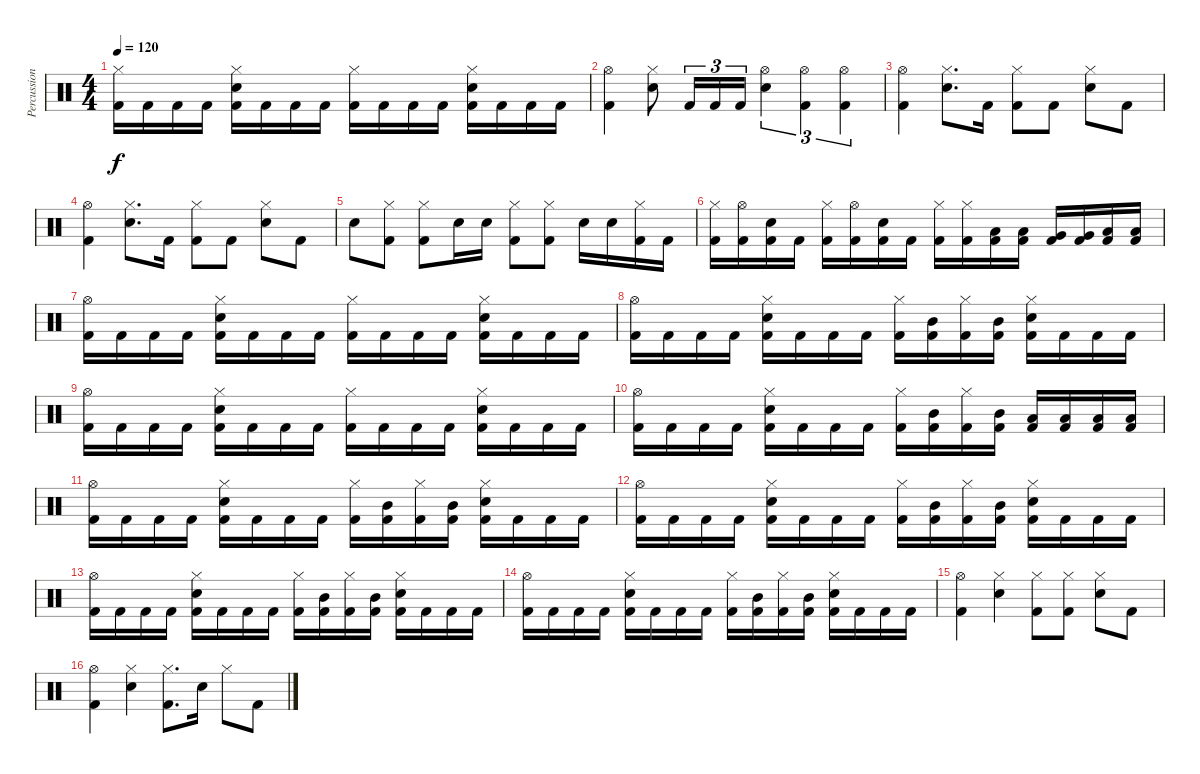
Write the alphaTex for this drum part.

\track ("Percussions" "Percussion") {instrument percussion}
\staff {score}
\articulation defaults
\ts (4 4)
\tempo 120
\clef neutral
\ks c
("Hi-Hat (closed)" "Kick (hit) 2").16{dy f} "Kick (hit) 2".16 "Kick (hit) 2".16 "Kick (hit) 2".16 ("Hi-Hat (closed)" "Snare (hit) 2" "Kick (hit) 2").16 "Kick (hit) 2".16 "Kick (hit) 2".16 "Kick (hit) 2".16 ("Hi-Hat (closed)" "Kick (hit) 2").16 "Kick (hit) 2".16 "Kick (hit) 2".16 "Kick (hit) 2".16 ("Hi-Hat (closed)" "Snare (hit) 2" "Kick (hit) 2").16 "Kick (hit) 2".16 "Kick (hit) 2".16 "Kick (hit) 2".16 |
("Hi-Hat (open)" "Kick (hit) 2").4 ("Hi-Hat (closed)" "Snare (hit) 2").8 "Kick (hit) 2".16{tu (3 2)} "Kick (hit) 2".16{tu (3 2)} "Kick (hit) 2".16{tu (3 2)} ("Hi-Hat (open)" "Snare (hit) 2").4{tu (3 2)} ("Hi-Hat (open)" "Kick (hit) 2").4{tu (3 2)} ("Hi-Hat (open)" "Kick (hit) 2").4{tu (3 2)} |
("Hi-Hat (open)" "Kick (hit) 2").4 ("Hi-Hat (closed)" "Snare (hit) 2").8{d} "Kick (hit) 2".16 ("Hi-Hat (closed)" "Kick (hit) 2").8 "Kick (hit) 2".8 ("Hi-Hat (closed)" "Snare (hit) 2").8 "Kick (hit) 2".8 |
("Hi-Hat (open)" "Kick (hit) 2").4 ("Hi-Hat (closed)" "Snare (hit) 2").8{d} "Kick (hit) 2".16 ("Hi-Hat (closed)" "Kick (hit) 2").8 "Kick (hit) 2".8 ("Hi-Hat (closed)" "Snare (hit) 2").8 "Kick (hit) 2".8 |
"Snare (hit) 2".8 ("Hi-Hat (closed)" "Kick (hit) 2").8 ("Hi-Hat (closed)" "Kick (hit) 2").8 "Snare (hit) 2".16 "Snare (hit) 2".16 ("Hi-Hat (closed)" "Kick (hit) 2").8 ("Hi-Hat (closed)" "Kick (hit) 2").8 "Snare (hit) 2".16 "Snare (hit) 2".16 ("Hi-Hat (closed)" "Kick (hit) 2").16 "Kick (hit) 2".16 |
("Hi-Hat (closed)" "Kick (hit) 2").16 ("Hi-Hat (open)" "Kick (hit) 2").16 ("Snare (hit) 2" "Kick (hit) 2").16 "Kick (hit) 2".16 ("Hi-Hat (closed)" "Kick (hit) 2").16 ("Hi-Hat (open)" "Kick (hit) 2").16 ("Snare (hit) 2" "Kick (hit) 2").16 "Kick (hit) 2".16 ("Hi-Hat (closed)" "Kick (hit) 2").16 ("Hi-Hat (closed)" "Kick (hit) 2").16 ("Low Tom (hit)" "Kick (hit) 2").16 ("Low Tom (hit)" "Kick (hit) 2").16 ("Very Low Tom (hit)" "Kick (hit) 2").16 ("Very Low Tom (hit)" "Kick (hit) 2").16 ("Low Floor Tom (hit)" "Kick (hit) 2").16 ("Low Floor Tom (hit)" "Kick (hit) 2").16 |
("Hi-Hat (open)" "Kick (hit) 2").16 "Kick (hit) 2".16 "Kick (hit) 2".16 "Kick (hit) 2".16 ("Hi-Hat (closed)" "Snare (hit) 2" "Kick (hit) 2").16 "Kick (hit) 2".16 "Kick (hit) 2".16 "Kick (hit) 2".16 ("Hi-Hat (closed)" "Kick (hit) 2").16 "Kick (hit) 2".16 "Kick (hit) 2".16 "Kick (hit) 2".16 ("Hi-Hat (closed)" "Snare (hit) 2" "Kick (hit) 2").16 "Kick (hit) 2".16 "Kick (hit) 2".16 "Kick (hit) 2".16 |
("Hi-Hat (open)" "Kick (hit) 2").16 "Kick (hit) 2".16 "Kick (hit) 2".16 "Kick (hit) 2".16 ("Hi-Hat (closed)" "Snare (hit) 2" "Kick (hit) 2").16 "Kick (hit) 2".16 "Kick (hit) 2".16 "Kick (hit) 2".16 ("Hi-Hat (closed)" "Kick (hit) 2").16 ("Mid Tom (hit)" "Kick (hit) 2").16 ("Hi-Hat (closed)" "Kick (hit) 2").16 ("Mid Tom (hit)" "Kick (hit) 2").16 ("Hi-Hat (closed)" "Snare (hit) 2" "Kick (hit) 2").16 "Kick (hit) 2".16 "Kick (hit) 2".16 "Kick (hit) 2".16 |
("Hi-Hat (open)" "Kick (hit) 2").16 "Kick (hit) 2".16 "Kick (hit) 2".16 "Kick (hit) 2".16 ("Hi-Hat (closed)" "Snare (hit) 2" "Kick (hit) 2").16 "Kick (hit) 2".16 "Kick (hit) 2".16 "Kick (hit) 2".16 ("Hi-Hat (closed)" "Kick (hit) 2").16 "Kick (hit) 2".16 "Kick (hit) 2".16 "Kick (hit) 2".16 ("Hi-Hat (closed)" "Snare (hit) 2" "Kick (hit) 2").16 "Kick (hit) 2".16 "Kick (hit) 2".16 "Kick (hit) 2".16 |
("Hi-Hat (open)" "Kick (hit) 2").16 "Kick (hit) 2".16 "Kick (hit) 2".16 "Kick (hit) 2".16 ("Hi-Hat (closed)" "Snare (hit) 2" "Kick (hit) 2").16 "Kick (hit) 2".16 "Kick (hit) 2".16 "Kick (hit) 2".16 ("Hi-Hat (closed)" "Kick (hit) 2").16 ("Mid Tom (hit)" "Kick (hit) 2").16 ("Hi-Hat (closed)" "Kick (hit) 2").16 ("Mid Tom (hit)" "Kick (hit) 2").16 ("Low Tom (hit)" "Kick (hit) 2").16 ("Low Tom (hit)" "Kick (hit) 2").16 ("Low Floor Tom (hit)" "Kick (hit) 2").16 ("Low Floor Tom (hit)" "Kick (hit) 2").16 |
("Hi-Hat (open)" "Kick (hit) 2").16 "Kick (hit) 2".16 "Kick (hit) 2".16 "Kick (hit) 2".16 ("Hi-Hat (closed)" "Snare (hit) 2" "Kick (hit) 2").16 "Kick (hit) 2".16 "Kick (hit) 2".16 "Kick (hit) 2".16 ("Hi-Hat (closed)" "Kick (hit) 2").16 ("Mid Tom (hit)" "Kick (hit) 2").16 ("Hi-Hat (closed)" "Kick (hit) 2").16 ("Mid Tom (hit)" "Kick (hit) 2").16 ("Hi-Hat (closed)" "Snare (hit) 2" "Kick (hit) 2").16 "Kick (hit) 2".16 "Kick (hit) 2".16 "Kick (hit) 2".16 |
("Hi-Hat (open)" "Kick (hit) 2").16 "Kick (hit) 2".16 "Kick (hit) 2".16 "Kick (hit) 2".16 ("Hi-Hat (closed)" "Snare (hit) 2" "Kick (hit) 2").16 "Kick (hit) 2".16 "Kick (hit) 2".16 "Kick (hit) 2".16 ("Hi-Hat (closed)" "Kick (hit) 2").16 ("Mid Tom (hit)" "Kick (hit) 2").16 ("Hi-Hat (closed)" "Kick (hit) 2").16 ("Mid Tom (hit)" "Kick (hit) 2").16 ("Hi-Hat (closed)" "Snare (hit) 2" "Kick (hit) 2").16 "Kick (hit) 2".16 "Kick (hit) 2".16 "Kick (hit) 2".16 |
("Hi-Hat (open)" "Kick (hit) 2").16 "Kick (hit) 2".16 "Kick (hit) 2".16 "Kick (hit) 2".16 ("Hi-Hat (closed)" "Snare (hit) 2" "Kick (hit) 2").16 "Kick (hit) 2".16 "Kick (hit) 2".16 "Kick (hit) 2".16 ("Hi-Hat (closed)" "Kick (hit) 2").16 ("Mid Tom (hit)" "Kick (hit) 2").16 ("Hi-Hat (closed)" "Kick (hit) 2").16 ("Mid Tom (hit)" "Kick (hit) 2").16 ("Hi-Hat (closed)" "Snare (hit) 2" "Kick (hit) 2").16 "Kick (hit) 2".16 "Kick (hit) 2".16 "Kick (hit) 2".16 |
("Hi-Hat (open)" "Kick (hit) 2").16 "Kick (hit) 2".16 "Kick (hit) 2".16 "Kick (hit) 2".16 ("Hi-Hat (closed)" "Snare (hit) 2" "Kick (hit) 2").16 "Kick (hit) 2".16 "Kick (hit) 2".16 "Kick (hit) 2".16 ("Hi-Hat (closed)" "Kick (hit) 2").16 ("Mid Tom (hit)" "Kick (hit) 2").16 ("Hi-Hat (closed)" "Kick (hit) 2").16 ("Mid Tom (hit)" "Kick (hit) 2").16 ("Hi-Hat (closed)" "Snare (hit) 2" "Kick (hit) 2").16 "Kick (hit) 2".16 "Kick (hit) 2".16 "Kick (hit) 2".16 |
("Hi-Hat (open)" "Kick (hit) 2").4 ("Hi-Hat (closed)" "Snare (hit) 2").4 ("Hi-Hat (closed)" "Kick (hit) 2").8 ("Hi-Hat (closed)" "Kick (hit) 2").8 ("Hi-Hat (closed)" "Snare (hit) 2").8 "Kick (hit) 2".8 |
("Hi-Hat (open)" "Kick (hit) 2").4 ("Hi-Hat (closed)" "Snare (hit) 2").4 ("Hi-Hat (closed)" "Kick (hit) 2").8{d} "Snare (hit) 2".16 "Hi-Hat (closed)".8 "Kick (hit) 2".8
